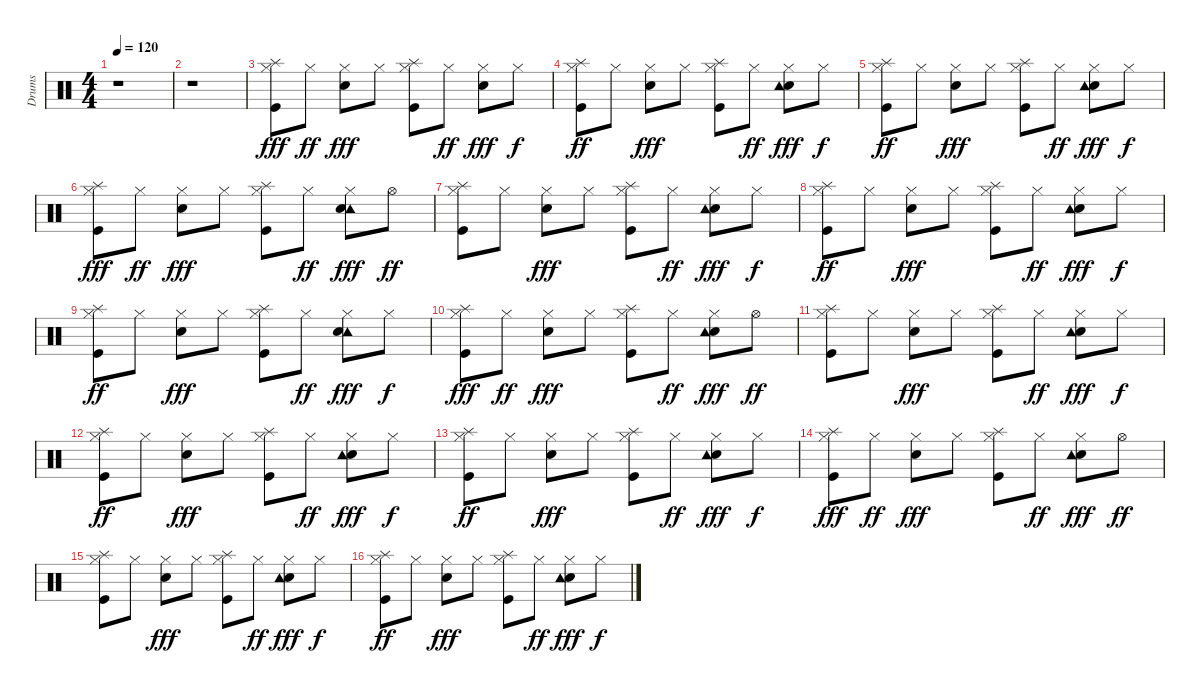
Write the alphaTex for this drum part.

\track ("Drums " "Drums ") {instrument percussion}
\staff {score}
\articulation defaults
\ts (4 4)
\tempo 120
\clef neutral
\ks c
r.1{dy fff} |
r.1 |
("Splash (hit)" "Hi-Hat (closed)" "Kick (hit)").8 "Hi-Hat (closed)".8{dy ff} ("Hi-Hat (closed)" "Electric Snare (hit)").8{dy fff} "Hi-Hat (closed)".8 ("Splash (hit)" "Hi-Hat (closed)" "Kick (hit)").8 "Hi-Hat (closed)".8{dy ff} ("Hi-Hat (closed)" "Electric Snare (hit)").8{dy fff} "Hi-Hat (closed)".8{dy f} |
("Hi-Hat (closed)" "Kick (hit)" "Splash (hit)").8{dy ff} "Hi-Hat (closed)".8 ("Hi-Hat (closed)" "Electric Snare (hit)").8{dy fff} "Hi-Hat (closed)".8 ("Kick (hit)" "Splash (hit)" "Hi-Hat (closed)").8 "Hi-Hat (closed)".8{dy ff} ("Electric Snare (hit)" "Tambourine (hit)" "Hi-Hat (closed)").8{dy fff} "Hi-Hat (closed)".8{dy f} |
("Hi-Hat (closed)" "Kick (hit)" "Splash (hit)").8{dy ff} "Hi-Hat (closed)".8 ("Hi-Hat (closed)" "Electric Snare (hit)").8{dy fff} "Hi-Hat (closed)".8 ("Kick (hit)" "Splash (hit)" "Hi-Hat (closed)").8 "Hi-Hat (closed)".8{dy ff} ("Electric Snare (hit)" "Tambourine (hit)" "Hi-Hat (closed)").8{dy fff} "Hi-Hat (closed)".8{dy f} |
("Hi-Hat (closed)" "Kick (hit)" "Splash (hit)").8{dy fff} "Hi-Hat (closed)".8{dy ff} ("Hi-Hat (closed)" "Electric Snare (hit)").8{dy fff} "Hi-Hat (closed)".8 ("Kick (hit)" "Splash (hit)" "Hi-Hat (closed)").8 "Hi-Hat (closed)".8{dy ff} ("Tambourine (hit)" "Hi-Hat (closed)" "Electric Snare (hit)").8{dy fff} "Hi-Hat (open)".8{dy ff} |
("Hi-Hat (closed)" "Kick (hit)" "Splash (hit)").8 "Hi-Hat (closed)".8 ("Electric Snare (hit)" "Hi-Hat (closed)").8{dy fff} "Hi-Hat (closed)".8 ("Splash (hit)" "Hi-Hat (closed)" "Kick (hit)").8 "Hi-Hat (closed)".8{dy ff} ("Electric Snare (hit)" "Tambourine (hit)" "Hi-Hat (closed)").8{dy fff} "Hi-Hat (closed)".8{dy f} |
("Hi-Hat (closed)" "Kick (hit)" "Splash (hit)").8{dy ff} "Hi-Hat (closed)".8 ("Hi-Hat (closed)" "Electric Snare (hit)").8{dy fff} "Hi-Hat (closed)".8 ("Kick (hit)" "Splash (hit)" "Hi-Hat (closed)").8 "Hi-Hat (closed)".8{dy ff} ("Electric Snare (hit)" "Tambourine (hit)" "Hi-Hat (closed)").8{dy fff} "Hi-Hat (closed)".8{dy f} |
("Hi-Hat (closed)" "Kick (hit)" "Splash (hit)").8{dy ff} "Hi-Hat (closed)".8 ("Hi-Hat (closed)" "Electric Snare (hit)").8{dy fff} "Hi-Hat (closed)".8 ("Kick (hit)" "Splash (hit)" "Hi-Hat (closed)").8 "Hi-Hat (closed)".8{dy ff} ("Tambourine (hit)" "Hi-Hat (closed)" "Electric Snare (hit)").8{dy fff} "Hi-Hat (closed)".8{dy f} |
("Hi-Hat (closed)" "Kick (hit)" "Splash (hit)").8{dy fff} "Hi-Hat (closed)".8{dy ff} ("Hi-Hat (closed)" "Electric Snare (hit)").8{dy fff} "Hi-Hat (closed)".8 ("Splash (hit)" "Hi-Hat (closed)" "Kick (hit)").8 "Hi-Hat (closed)".8{dy ff} ("Electric Snare (hit)" "Tambourine (hit)" "Hi-Hat (closed)").8{dy fff} "Hi-Hat (open)".8{dy ff} |
("Hi-Hat (closed)" "Kick (hit)" "Splash (hit)").8 "Hi-Hat (closed)".8 ("Hi-Hat (closed)" "Electric Snare (hit)").8{dy fff} "Hi-Hat (closed)".8 ("Kick (hit)" "Splash (hit)" "Hi-Hat (closed)").8 "Hi-Hat (closed)".8{dy ff} ("Electric Snare (hit)" "Tambourine (hit)" "Hi-Hat (closed)").8{dy fff} "Hi-Hat (closed)".8{dy f} |
("Hi-Hat (closed)" "Kick (hit)" "Splash (hit)").8{dy ff} "Hi-Hat (closed)".8 ("Electric Snare (hit)" "Hi-Hat (closed)").8{dy fff} "Hi-Hat (closed)".8 ("Kick (hit)" "Splash (hit)" "Hi-Hat (closed)").8 "Hi-Hat (closed)".8{dy ff} ("Electric Snare (hit)" "Tambourine (hit)" "Hi-Hat (closed)").8{dy fff} "Hi-Hat (closed)".8{dy f} |
("Hi-Hat (closed)" "Kick (hit)" "Splash (hit)").8{dy ff} "Hi-Hat (closed)".8 ("Hi-Hat (closed)" "Electric Snare (hit)").8{dy fff} "Hi-Hat (closed)".8 ("Splash (hit)" "Hi-Hat (closed)" "Kick (hit)").8 "Hi-Hat (closed)".8{dy ff} ("Electric Snare (hit)" "Tambourine (hit)" "Hi-Hat (closed)").8{dy fff} "Hi-Hat (closed)".8{dy f} |
("Hi-Hat (closed)" "Kick (hit)" "Splash (hit)").8{dy fff} "Hi-Hat (closed)".8{dy ff} ("Hi-Hat (closed)" "Electric Snare (hit)").8{dy fff} "Hi-Hat (closed)".8 ("Kick (hit)" "Splash (hit)" "Hi-Hat (closed)").8 "Hi-Hat (closed)".8{dy ff} ("Electric Snare (hit)" "Tambourine (hit)" "Hi-Hat (closed)").8{dy fff} "Hi-Hat (open)".8{dy ff} |
("Hi-Hat (closed)" "Kick (hit)" "Splash (hit)").8 "Hi-Hat (closed)".8 ("Hi-Hat (closed)" "Electric Snare (hit)").8{dy fff} "Hi-Hat (closed)".8 ("Splash (hit)" "Hi-Hat (closed)" "Kick (hit)").8 "Hi-Hat (closed)".8{dy ff} ("Electric Snare (hit)" "Tambourine (hit)" "Hi-Hat (closed)").8{dy fff} "Hi-Hat (closed)".8{dy f} |
("Hi-Hat (closed)" "Kick (hit)" "Splash (hit)").8{dy ff} "Hi-Hat (closed)".8 ("Hi-Hat (closed)" "Electric Snare (hit)").8{dy fff} "Hi-Hat (closed)".8 ("Splash (hit)" "Hi-Hat (closed)" "Kick (hit)").8 "Hi-Hat (closed)".8{dy ff} ("Electric Snare (hit)" "Tambourine (hit)" "Hi-Hat (closed)").8{dy fff} "Hi-Hat (closed)".8{dy f}
